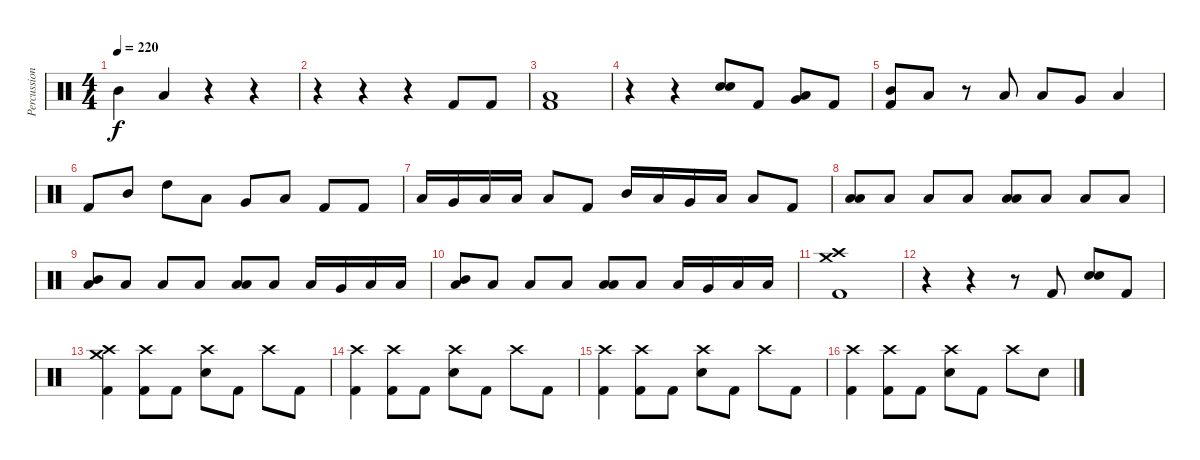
\track ("Percussions" "Percussion") {instrument percussion}
\staff {score}
\articulation defaults
\ts (4 4)
\tempo 220
\clef neutral
\ks c "Mid Tom (hit)".4{dy f} "Low Tom (hit)".4
r.4 r.4 |
r.4 r.4 r.4 "Kick (hit) 2".8 "Kick (hit) 2".8 |
("Low Floor Tom (hit)" "Kick (hit) 2").1 |
r.4 r.4 ("Snare (hit) 2" "Snare (hit) 2").8{bd 120} "Kick (hit) 2".8 ("Low Tom (hit)" "Very Low Tom (hit)").8{bd 120} "Kick (hit) 2".8 |
("Mid Tom (hit)" "Kick (hit) 2").8 "Low Tom (hit)".8 r.8 "Low Tom (hit)".8 "Low Tom (hit)".8 "Very Low Tom (hit)".8 "Low Floor Tom (hit)".4 |
"Kick (hit) 2".8 "Mid Tom (hit)".8 "High Tom (hit)".8 "Low Tom (hit)".8 "Very Low Tom (hit)".8 "Low Floor Tom (hit)".8 "Kick (hit) 2".8 "Kick (hit) 2".8 |
"Low Tom (hit)".16 "Very Low Tom (hit)".16 "Low Floor Tom (hit)".16 "Low Floor Tom (hit)".16 "Low Floor Tom (hit)".8 "Kick (hit) 2".8 "Mid Tom (hit)".16 "Low Tom (hit)".16 "Very Low Tom (hit)".16 "Low Floor Tom (hit)".16 "Low Floor Tom (hit)".8 "Kick (hit) 2".8 |
("Low Tom (hit)" "Low Floor Tom (hit)").8 "Low Floor Tom (hit)".8 "Low Floor Tom (hit)".8 "Low Floor Tom (hit)".8 ("Low Tom (hit)" "Low Floor Tom (hit)").8 "Low Floor Tom (hit)".8 "Low Floor Tom (hit)".8 "Low Floor Tom (hit)".8 |
("Mid Tom (hit)" "Low Floor Tom (hit)").8 "Low Floor Tom (hit)".8 "Low Floor Tom (hit)".8 "Low Floor Tom (hit)".8 ("Low Tom (hit)" "Low Floor Tom (hit)").8 "Low Floor Tom (hit)".8 "Low Tom (hit)".16 "Very Low Tom (hit)".16 "Low Floor Tom (hit)".16 "Low Floor Tom (hit)".16 |
("Mid Tom (hit)" "Low Floor Tom (hit)").8 "Low Floor Tom (hit)".8 "Low Floor Tom (hit)".8 "Low Floor Tom (hit)".8 ("Low Tom (hit)" "Low Floor Tom (hit)").8 "Low Floor Tom (hit)".8 "Low Tom (hit)".16 "Very Low Tom (hit)".16 "Low Floor Tom (hit)".16 "Low Floor Tom (hit)".16 |
("Crash high (hit)" "Crash medium (hit)" "Kick (hit) 2").1 |
r.4 r.4 r.8 "Kick (hit) 2".8 ("Snare (hit) 2" "Snare (hit) 2").8{bd 120} "Kick (hit) 2".8 |
("Crash high (hit)" "Crash medium (hit)" "Kick (hit) 2").4 ("Crash high (hit)" "Kick (hit) 2").8 "Kick (hit) 2".8 ("Crash high (hit)" "Snare (hit) 2").8 "Kick (hit) 2".8 "Crash high (hit)".8 "Kick (hit) 2".8 |
("Crash high (hit)" "Kick (hit) 2").4 ("Crash high (hit)" "Kick (hit) 2").8 "Kick (hit) 2".8 ("Crash high (hit)" "Snare (hit) 2").8 "Kick (hit) 2".8 "Crash high (hit)".8 "Kick (hit) 2".8 |
("Crash high (hit)" "Kick (hit) 2").4 ("Crash high (hit)" "Kick (hit) 2").8 "Kick (hit) 2".8 ("Crash high (hit)" "Snare (hit) 2").8 "Kick (hit) 2".8 "Crash high (hit)".8 "Kick (hit) 2".8 |
("Crash high (hit)" "Kick (hit) 2").4 ("Crash high (hit)" "Kick (hit) 2").8 "Kick (hit) 2".8 ("Crash high (hit)" "Snare (hit) 2").8 "Kick (hit) 2".8 "Crash high (hit)".8 "Snare (hit) 2".8
